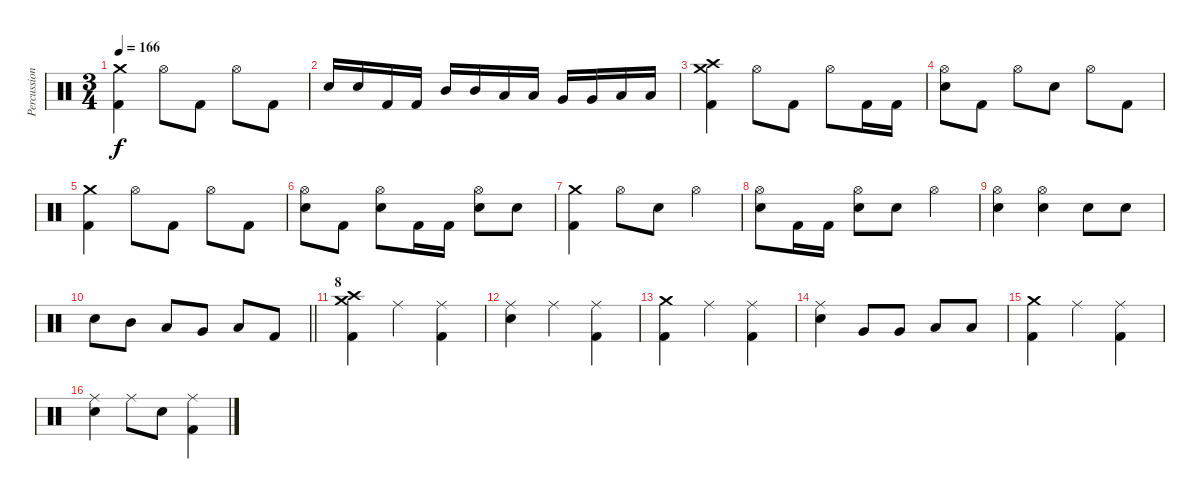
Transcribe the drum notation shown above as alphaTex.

\track ("Percussion" "Percussion") {instrument percussion}
\staff {score}
\articulation defaults
\ts (3 4)
\tempo 166
\clef neutral
\ks c
("Crash medium (hit)" "Kick (hit) 2").4{dy f} "Hi-Hat (open)".8 "Kick (hit) 2".8 "Hi-Hat (open)".8 "Kick (hit) 2".8 |
"Electric Snare (hit)".16 "Electric Snare (hit)".16 "Kick (hit) 2".16 "Kick (hit) 2".16 "Mid Tom (hit)".16 "Mid Tom (hit)".16 "Low Tom (hit)".16 "Low Tom (hit)".16 "Very Low Tom (hit)".16 "Very Low Tom (hit)".16 "Low Floor Tom (hit)".16 "Low Floor Tom (hit)".16 |
("Crash medium (hit)" "Crash high (hit)" "Kick (hit) 2").4 "Hi-Hat (open)".8 "Kick (hit) 2".8 "Hi-Hat (open)".8 "Kick (hit) 2".16 "Kick (hit) 2".16 |
("Hi-Hat (open)" "Electric Snare (hit)").8 "Kick (hit) 2".8 "Hi-Hat (open)".8 "Electric Snare (hit)".8 "Hi-Hat (open)".8 "Kick (hit) 2".8 |
("Crash medium (hit)" "Kick (hit) 2").4 "Hi-Hat (open)".8 "Kick (hit) 2".8 "Hi-Hat (open)".8 "Kick (hit) 2".8 |
("Hi-Hat (open)" "Electric Snare (hit)").8 "Kick (hit) 2".8 ("Hi-Hat (open)" "Electric Snare (hit)").8 "Kick (hit) 2".16 "Kick (hit) 2".16 ("Hi-Hat (open)" "Electric Snare (hit)").8 "Electric Snare (hit)".8 |
("Crash medium (hit)" "Kick (hit) 2").4 "Hi-Hat (open)".8 "Electric Snare (hit)".8 "Hi-Hat (open)".4 |
("Hi-Hat (open)" "Electric Snare (hit)").8 "Kick (hit) 2".16 "Kick (hit) 2".16 ("Hi-Hat (open)" "Electric Snare (hit)").8 "Electric Snare (hit)".8 "Hi-Hat (open)".4 |
("Hi-Hat (open)" "Electric Snare (hit)").4 ("Hi-Hat (open)" "Electric Snare (hit)").4 "Electric Snare (hit)".8 "Electric Snare (hit)".8 |
\barLineRight lightlight "Electric Snare (hit)".8 "Mid Tom (hit)".8 "Low Tom (hit)".8 "Very Low Tom (hit)".8 "Low Floor Tom (hit)".8 "Kick (hit) 2".8
|
\section ("" "8")
("Crash medium (hit)" "Crash high (hit)" "Kick (hit) 2").4 "Ride (middle)".4 ("Ride (middle)" "Kick (hit) 2").4 |
("Ride (middle)" "Electric Snare (hit)").4 "Ride (middle)".4 ("Ride (middle)" "Kick (hit) 2").4 |
("Crash medium (hit)" "Kick (hit) 2").4 "Ride (middle)".4 ("Ride (middle)" "Kick (hit) 2").4 |
("Ride (middle)" "Electric Snare (hit)").4 "Very Low Tom (hit)".8 "Very Low Tom (hit)".8 "Low Floor Tom (hit)".8 "Low Floor Tom (hit)".8 |
("Crash medium (hit)" "Kick (hit) 2").4 "Ride (middle)".4 ("Ride (middle)" "Kick (hit) 2").4 |
("Ride (middle)" "Electric Snare (hit)").4 "Ride (middle)".8 "Electric Snare (hit)".8 ("Ride (middle)" "Kick (hit) 2").4
